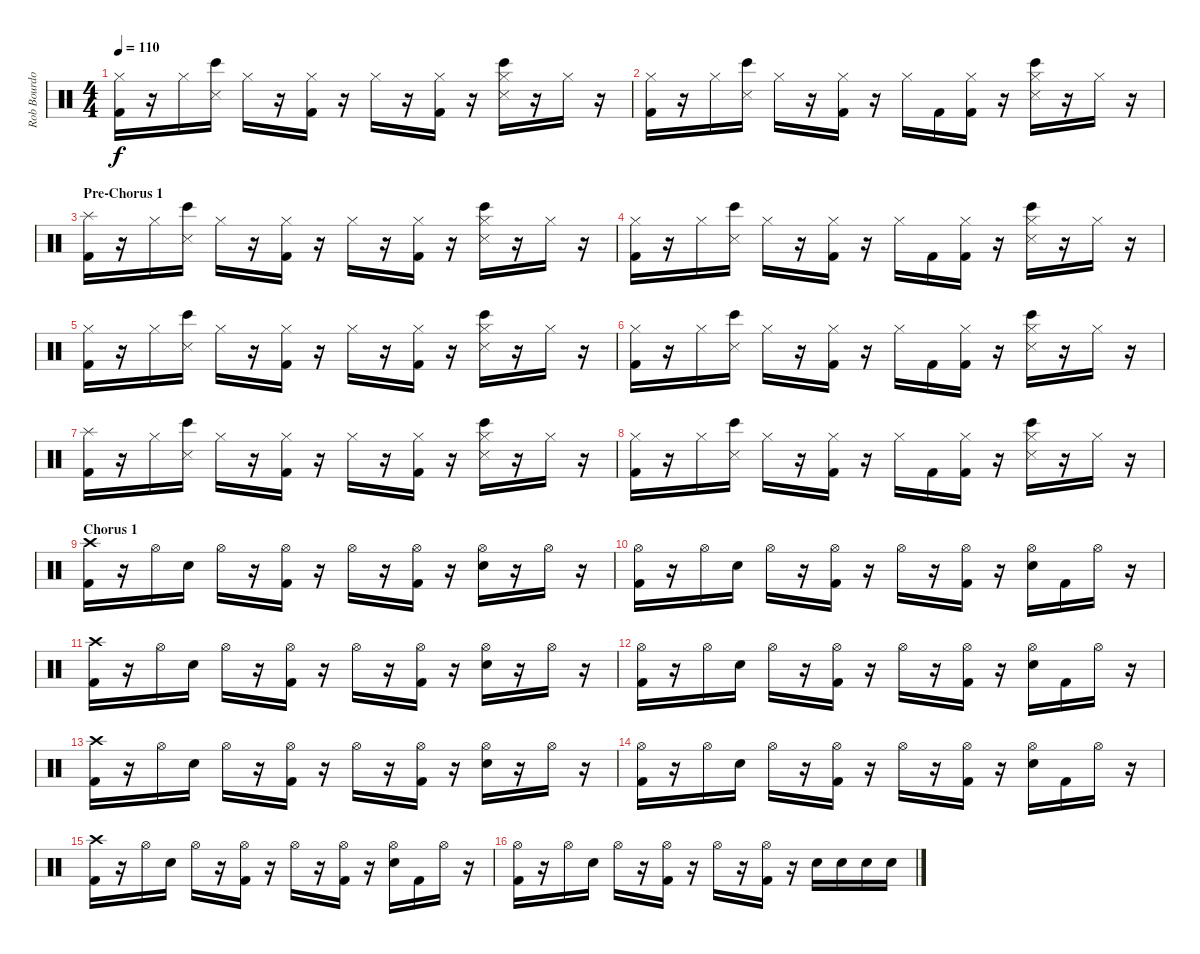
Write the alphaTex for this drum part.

\track ("Rob Bourdon (Drums)" "Rob Bourdo") {instrument percussion}
\staff {score}
\articulation defaults
\ts (4 4)
\tempo 110
\clef neutral
\ks c
("Hi-Hat (closed)" "Kick (hit) 2").16{dy f} r.16 "Hi-Hat (closed)".16 ("Snare (side stick) 3" "Bongo High (hit)").16 "Hi-Hat (closed)".16 r.16 ("Hi-Hat (closed)" "Kick (hit) 2").16 r.16 "Hi-Hat (closed)".16 r.16 ("Hi-Hat (closed)" "Kick (hit) 2").16 r.16 ("Hi-Hat (closed)" "Snare (side stick) 3" "Bongo High (hit)").16 r.16 "Hi-Hat (closed)".16 r.16 |
("Hi-Hat (closed)" "Kick (hit) 2").16 r.16 "Hi-Hat (closed)".16 ("Snare (side stick) 3" "Bongo High (hit)").16 "Hi-Hat (closed)".16 r.16 ("Hi-Hat (closed)" "Kick (hit) 2").16 r.16 "Hi-Hat (closed)".16 "Kick (hit) 2".16 ("Hi-Hat (closed)" "Kick (hit) 2").16 r.16 ("Hi-Hat (closed)" "Snare (side stick) 3" "Bongo High (hit)").16 r.16 "Hi-Hat (closed)".16 r.16 |
\section ("" "Pre-Chorus 1")
("Splash (hit)" "Kick (hit) 2").16 r.16 "Hi-Hat (closed)".16 ("Snare (side stick) 3" "Bongo High (hit)").16 "Hi-Hat (closed)".16 r.16 ("Hi-Hat (closed)" "Kick (hit) 2").16 r.16 "Hi-Hat (closed)".16 r.16 ("Hi-Hat (closed)" "Kick (hit) 2").16 r.16 ("Hi-Hat (closed)" "Snare (side stick) 3" "Bongo High (hit)").16 r.16 "Hi-Hat (closed)".16 r.16 |
("Hi-Hat (closed)" "Kick (hit) 2").16 r.16 "Hi-Hat (closed)".16 ("Snare (side stick) 3" "Bongo High (hit)").16 "Hi-Hat (closed)".16 r.16 ("Hi-Hat (closed)" "Kick (hit) 2").16 r.16 "Hi-Hat (closed)".16 "Kick (hit) 2".16 ("Hi-Hat (closed)" "Kick (hit) 2").16 r.16 ("Hi-Hat (closed)" "Snare (side stick) 3" "Bongo High (hit)").16 r.16 "Hi-Hat (closed)".16 r.16 |
("Hi-Hat (closed)" "Kick (hit) 2").16 r.16 "Hi-Hat (closed)".16 ("Snare (side stick) 3" "Bongo High (hit)").16 "Hi-Hat (closed)".16 r.16 ("Hi-Hat (closed)" "Kick (hit) 2").16 r.16 "Hi-Hat (closed)".16 r.16 ("Hi-Hat (closed)" "Kick (hit) 2").16 r.16 ("Hi-Hat (closed)" "Snare (side stick) 3" "Bongo High (hit)").16 r.16 "Hi-Hat (closed)".16 r.16 |
("Hi-Hat (closed)" "Kick (hit) 2").16 r.16 "Hi-Hat (closed)".16 ("Snare (side stick) 3" "Bongo High (hit)").16 "Hi-Hat (closed)".16 r.16 ("Hi-Hat (closed)" "Kick (hit) 2").16 r.16 "Hi-Hat (closed)".16 "Kick (hit) 2".16 ("Hi-Hat (closed)" "Kick (hit) 2").16 r.16 ("Hi-Hat (closed)" "Snare (side stick) 3" "Bongo High (hit)").16 r.16 "Hi-Hat (closed)".16 r.16 |
("Splash (hit)" "Kick (hit) 2").16 r.16 "Hi-Hat (closed)".16 ("Snare (side stick) 3" "Bongo High (hit)").16 "Hi-Hat (closed)".16 r.16 ("Hi-Hat (closed)" "Kick (hit) 2").16 r.16 "Hi-Hat (closed)".16 r.16 ("Hi-Hat (closed)" "Kick (hit) 2").16 r.16 ("Hi-Hat (closed)" "Snare (side stick) 3" "Bongo High (hit)").16 r.16 "Hi-Hat (closed)".16 r.16 |
("Hi-Hat (closed)" "Kick (hit) 2").16 r.16 "Hi-Hat (closed)".16 ("Snare (side stick) 3" "Bongo High (hit)").16 "Hi-Hat (closed)".16 r.16 ("Hi-Hat (closed)" "Kick (hit) 2").16 r.16 "Hi-Hat (closed)".16 "Kick (hit) 2".16 ("Hi-Hat (closed)" "Kick (hit) 2").16 r.16 ("Hi-Hat (closed)" "Snare (side stick) 3" "Bongo High (hit)").16 r.16 "Hi-Hat (closed)".16 r.16 |
\section ("" "Chorus 1")
("Crash high (hit)" "Kick (hit) 2").16 r.16 "Hi-Hat (open)".16 "Electric Snare (hit)".16 "Hi-Hat (open)".16 r.16 ("Hi-Hat (open)" "Kick (hit) 2").16 r.16 "Hi-Hat (open)".16 r.16 ("Hi-Hat (open)" "Kick (hit) 2").16 r.16 ("Hi-Hat (open)" "Electric Snare (hit)").16 r.16 "Hi-Hat (open)".16 r.16 |
("Hi-Hat (open)" "Kick (hit) 2").16 r.16 "Hi-Hat (open)".16 "Electric Snare (hit)".16 "Hi-Hat (open)".16 r.16 ("Hi-Hat (open)" "Kick (hit) 2").16 r.16 "Hi-Hat (open)".16 r.16 ("Hi-Hat (open)" "Kick (hit) 2").16 r.16 ("Hi-Hat (open)" "Electric Snare (hit)").16 "Kick (hit) 2".16 "Hi-Hat (open)".16 r.16 |
("Crash high (hit)" "Kick (hit) 2").16 r.16 "Hi-Hat (open)".16 "Electric Snare (hit)".16 "Hi-Hat (open)".16 r.16 ("Hi-Hat (open)" "Kick (hit) 2").16 r.16 "Hi-Hat (open)".16 r.16 ("Hi-Hat (open)" "Kick (hit) 2").16 r.16 ("Hi-Hat (open)" "Electric Snare (hit)").16 r.16 "Hi-Hat (open)".16 r.16 |
("Hi-Hat (open)" "Kick (hit) 2").16 r.16 "Hi-Hat (open)".16 "Electric Snare (hit)".16 "Hi-Hat (open)".16 r.16 ("Hi-Hat (open)" "Kick (hit) 2").16 r.16 "Hi-Hat (open)".16 r.16 ("Hi-Hat (open)" "Kick (hit) 2").16 r.16 ("Hi-Hat (open)" "Electric Snare (hit)").16 "Kick (hit) 2".16 "Hi-Hat (open)".16 r.16 |
("Crash high (hit)" "Kick (hit) 2").16 r.16 "Hi-Hat (open)".16 "Electric Snare (hit)".16 "Hi-Hat (open)".16 r.16 ("Hi-Hat (open)" "Kick (hit) 2").16 r.16 "Hi-Hat (open)".16 r.16 ("Hi-Hat (open)" "Kick (hit) 2").16 r.16 ("Hi-Hat (open)" "Electric Snare (hit)").16 r.16 "Hi-Hat (open)".16 r.16 |
("Hi-Hat (open)" "Kick (hit) 2").16 r.16 "Hi-Hat (open)".16 "Electric Snare (hit)".16 "Hi-Hat (open)".16 r.16 ("Hi-Hat (open)" "Kick (hit) 2").16 r.16 "Hi-Hat (open)".16 r.16 ("Hi-Hat (open)" "Kick (hit) 2").16 r.16 ("Hi-Hat (open)" "Electric Snare (hit)").16 "Kick (hit) 2".16 "Hi-Hat (open)".16 r.16 |
("Crash high (hit)" "Kick (hit) 2").16 r.16 "Hi-Hat (open)".16 "Electric Snare (hit)".16 "Hi-Hat (open)".16 r.16 ("Hi-Hat (open)" "Kick (hit) 2").16 r.16 "Hi-Hat (open)".16 r.16 ("Hi-Hat (open)" "Kick (hit) 2").16 r.16 ("Hi-Hat (open)" "Electric Snare (hit)").16 "Kick (hit) 2".16 "Hi-Hat (open)".16 r.16 |
("Hi-Hat (open)" "Kick (hit) 2").16 r.16 "Hi-Hat (open)".16 "Electric Snare (hit)".16 "Hi-Hat (open)".16 r.16 ("Hi-Hat (open)" "Kick (hit) 2").16 r.16 "Hi-Hat (open)".16 r.16 ("Hi-Hat (open)" "Kick (hit) 2").16 r.16 "Electric Snare (hit)".16 "Electric Snare (hit)".16 "Electric Snare (hit)".16 "Electric Snare (hit)".16
